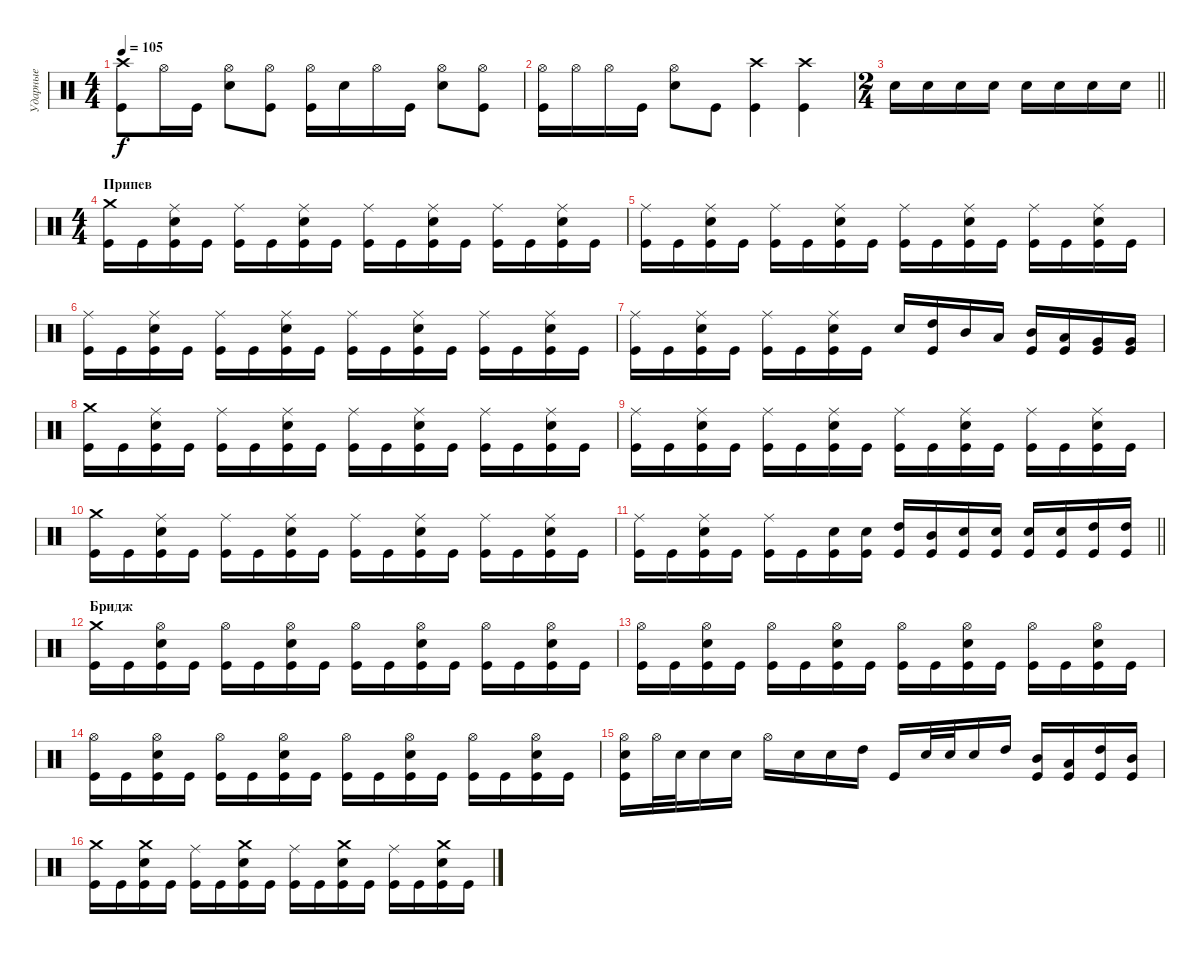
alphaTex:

\track ("Ударные" "Ударные") {instrument percussion}
\staff {score}
\articulation defaults
\ts (4 4)
\tempo 105
\clef neutral
\ks c
("Kick (hit)" "Crash high (hit)").8{dy f} "Hi-Hat (open)".16 "Kick (hit)".16 ("Snare (hit) 2" "Hi-Hat (open)").8 ("Kick (hit)" "Hi-Hat (open)").8 ("Kick (hit)" "Hi-Hat (open)").16 "Snare (hit) 2".16 "Hi-Hat (open)".16 "Kick (hit)".16 ("Snare (hit) 2" "Hi-Hat (open)").8 ("Kick (hit)" "Hi-Hat (open)").8 |
("Kick (hit)" "Hi-Hat (open)").16 "Hi-Hat (open)".16 "Hi-Hat (open)".16 "Kick (hit)".16 ("Snare (hit) 2" "Hi-Hat (open)").8 "Kick (hit)".8 ("Kick (hit)" "Crash high (hit)").4 ("Kick (hit)" "Crash high (hit)").4 |
\ts (2 4)
\barLineRight lightlight "Snare (hit) 2".16 "Snare (hit) 2".16 "Snare (hit) 2".16 "Snare (hit) 2".16 "Snare (hit) 2".16 "Snare (hit) 2".16 "Snare (hit) 2".16 "Snare (hit) 2".16
|
\ts (4 4)
\section ("" "Припев")
("Kick (hit)" "Crash medium (hit)").16 "Kick (hit)".16 ("Kick (hit)" "Snare (hit) 2" "Ride (middle)").16 "Kick (hit)".16 ("Kick (hit)" "Ride (middle)").16 "Kick (hit)".16 ("Kick (hit)" "Snare (hit) 2" "Ride (middle)").16 "Kick (hit)".16 ("Kick (hit)" "Ride (middle)").16 "Kick (hit)".16 ("Kick (hit)" "Snare (hit) 2" "Ride (middle)").16 "Kick (hit)".16 ("Kick (hit)" "Ride (middle)").16 "Kick (hit)".16 ("Kick (hit)" "Snare (hit) 2" "Ride (middle)").16 "Kick (hit)".16 |
("Kick (hit)" "Ride (middle)").16 "Kick (hit)".16 ("Kick (hit)" "Snare (hit) 2" "Ride (middle)").16 "Kick (hit)".16 ("Kick (hit)" "Ride (middle)").16 "Kick (hit)".16 ("Kick (hit)" "Snare (hit) 2" "Ride (middle)").16 "Kick (hit)".16 ("Kick (hit)" "Ride (middle)").16 "Kick (hit)".16 ("Kick (hit)" "Snare (hit) 2" "Ride (middle)").16 "Kick (hit)".16 ("Kick (hit)" "Ride (middle)").16 "Kick (hit)".16 ("Kick (hit)" "Snare (hit) 2" "Ride (middle)").16 "Kick (hit)".16 |
("Kick (hit)" "Ride (middle)").16 "Kick (hit)".16 ("Kick (hit)" "Snare (hit) 2" "Ride (middle)").16 "Kick (hit)".16 ("Kick (hit)" "Ride (middle)").16 "Kick (hit)".16 ("Kick (hit)" "Snare (hit) 2" "Ride (middle)").16 "Kick (hit)".16 ("Kick (hit)" "Ride (middle)").16 "Kick (hit)".16 ("Kick (hit)" "Snare (hit) 2" "Ride (middle)").16 "Kick (hit)".16 ("Kick (hit)" "Ride (middle)").16 "Kick (hit)".16 ("Kick (hit)" "Snare (hit) 2" "Ride (middle)").16 "Kick (hit)".16 |
("Kick (hit)" "Ride (middle)").16 "Kick (hit)".16 ("Kick (hit)" "Snare (hit) 2" "Ride (middle)").16 "Kick (hit)".16 ("Kick (hit)" "Ride (middle)").16 "Kick (hit)".16 ("Kick (hit)" "Snare (hit) 2" "Ride (middle)").16 "Kick (hit)".16 "Snare (hit) 2".16 ("Kick (hit)" "High Tom (hit)").16 "Mid Tom (hit)".16 "Low Tom (hit)".16 ("Kick (hit)" "Mid Tom (hit)").16 ("Kick (hit)" "Low Tom (hit)").16 ("Kick (hit)" "Very Low Tom (hit)").16 ("Kick (hit)" "Very Low Tom (hit)").16 |
("Kick (hit)" "Crash medium (hit)").16 "Kick (hit)".16 ("Kick (hit)" "Snare (hit) 2" "Ride (middle)").16 "Kick (hit)".16 ("Kick (hit)" "Ride (middle)").16 "Kick (hit)".16 ("Kick (hit)" "Snare (hit) 2" "Ride (middle)").16 "Kick (hit)".16 ("Kick (hit)" "Ride (middle)").16 "Kick (hit)".16 ("Kick (hit)" "Snare (hit) 2" "Ride (middle)").16 "Kick (hit)".16 ("Kick (hit)" "Ride (middle)").16 "Kick (hit)".16 ("Kick (hit)" "Snare (hit) 2" "Ride (middle)").16 "Kick (hit)".16 |
("Kick (hit)" "Ride (middle)").16 "Kick (hit)".16 ("Kick (hit)" "Snare (hit) 2" "Ride (middle)").16 "Kick (hit)".16 ("Kick (hit)" "Ride (middle)").16 "Kick (hit)".16 ("Kick (hit)" "Snare (hit) 2" "Ride (middle)").16 "Kick (hit)".16 ("Kick (hit)" "Ride (middle)").16 "Kick (hit)".16 ("Kick (hit)" "Snare (hit) 2" "Ride (middle)").16 "Kick (hit)".16 ("Kick (hit)" "Ride (middle)").16 "Kick (hit)".16 ("Kick (hit)" "Snare (hit) 2" "Ride (middle)").16 "Kick (hit)".16 |
("Kick (hit)" "Crash medium (hit)").16 "Kick (hit)".16 ("Kick (hit)" "Snare (hit) 2" "Ride (middle)").16 "Kick (hit)".16 ("Kick (hit)" "Ride (middle)").16 "Kick (hit)".16 ("Kick (hit)" "Snare (hit) 2" "Ride (middle)").16 "Kick (hit)".16 ("Kick (hit)" "Ride (middle)").16 "Kick (hit)".16 ("Kick (hit)" "Snare (hit) 2" "Ride (middle)").16 "Kick (hit)".16 ("Kick (hit)" "Ride (middle)").16 "Kick (hit)".16 ("Kick (hit)" "Snare (hit) 2" "Ride (middle)").16 "Kick (hit)".16 |
\barLineRight lightlight
("Kick (hit)" "Ride (middle)").16 "Kick (hit)".16 ("Kick (hit)" "Snare (hit) 2" "Ride (middle)").16 "Kick (hit)".16 ("Kick (hit)" "Ride (middle)").16 "Kick (hit)".16 ("Kick (hit)" "Snare (hit) 2").16 ("Kick (hit)" "Snare (hit) 2").16 ("Kick (hit)" "High Tom (hit)").16 ("Kick (hit)" "Mid Tom (hit)").16 ("Kick (hit)" "Snare (hit) 2").16 ("Kick (hit)" "Snare (hit) 2").16 ("Kick (hit)" "Snare (hit) 2").16 ("Kick (hit)" "Snare (hit) 2").16 ("Kick (hit)" "High Tom (hit)").16 ("Kick (hit)" "High Tom (hit)").16 |
\section ("" "Бридж")
("Kick (hit)" "Crash medium (hit)").16 "Kick (hit)".16 ("Kick (hit)" "Snare (hit) 2" "Hi-Hat (open)").16 "Kick (hit)".16 ("Kick (hit)" "Hi-Hat (open)").16 "Kick (hit)".16 ("Kick (hit)" "Snare (hit) 2" "Hi-Hat (open)").16 "Kick (hit)".16 ("Kick (hit)" "Hi-Hat (open)").16 "Kick (hit)".16 ("Kick (hit)" "Snare (hit) 2" "Hi-Hat (open)").16 "Kick (hit)".16 ("Kick (hit)" "Hi-Hat (open)").16 "Kick (hit)".16 ("Kick (hit)" "Snare (hit) 2" "Hi-Hat (open)").16 "Kick (hit)".16 |
("Kick (hit)" "Hi-Hat (open)").16 "Kick (hit)".16 ("Kick (hit)" "Snare (hit) 2" "Hi-Hat (open)").16 "Kick (hit)".16 ("Kick (hit)" "Hi-Hat (open)").16 "Kick (hit)".16 ("Kick (hit)" "Snare (hit) 2" "Hi-Hat (open)").16 "Kick (hit)".16 ("Kick (hit)" "Hi-Hat (open)").16 "Kick (hit)".16 ("Kick (hit)" "Snare (hit) 2" "Hi-Hat (open)").16 "Kick (hit)".16 ("Kick (hit)" "Hi-Hat (open)").16 "Kick (hit)".16 ("Kick (hit)" "Snare (hit) 2" "Hi-Hat (open)").16 "Kick (hit)".16 |
("Kick (hit)" "Hi-Hat (open)").16 "Kick (hit)".16 ("Kick (hit)" "Snare (hit) 2" "Hi-Hat (open)").16 "Kick (hit)".16 ("Kick (hit)" "Hi-Hat (open)").16 "Kick (hit)".16 ("Kick (hit)" "Snare (hit) 2" "Hi-Hat (open)").16 "Kick (hit)".16 ("Kick (hit)" "Hi-Hat (open)").16 "Kick (hit)".16 ("Kick (hit)" "Snare (hit) 2" "Hi-Hat (open)").16 "Kick (hit)".16 ("Kick (hit)" "Hi-Hat (open)").16 "Kick (hit)".16 ("Kick (hit)" "Snare (hit) 2" "Hi-Hat (open)").16 "Kick (hit)".16 |
("Kick (hit)" "Snare (hit) 2" "Hi-Hat (open)").16 "Hi-Hat (open)".32 "Snare (hit) 2".32 "Snare (hit) 2".16 "Snare (hit) 2".16 "Hi-Hat (open)".16 "Snare (hit) 2".16 "Snare (hit) 2".16 "High Tom (hit)".16 "Kick (hit)".16 "Snare (hit) 2".32 "Snare (hit) 2".32 "Snare (hit) 2".16 "High Tom (hit)".16 ("Kick (hit)" "Mid Tom (hit)").16 ("Kick (hit)" "Low Tom (hit)").16 ("Kick (hit)" "High Tom (hit)").16 ("Kick (hit)" "Mid Tom (hit)").16 |
("Kick (hit)" "Crash medium (hit)").16 "Kick (hit)".16 ("Kick (hit)" "Snare (hit) 2" "Crash medium (hit)").16 "Kick (hit)".16 ("Kick (hit)" "Ride (middle)").16 "Kick (hit)".16 ("Kick (hit)" "Snare (hit) 2" "Crash medium (hit)").16 "Kick (hit)".16 ("Kick (hit)" "Ride (middle)").16 "Kick (hit)".16 ("Kick (hit)" "Snare (hit) 2" "Crash medium (hit)").16 "Kick (hit)".16 ("Kick (hit)" "Ride (middle)").16 "Kick (hit)".16 ("Kick (hit)" "Snare (hit) 2" "Crash medium (hit)").16 "Kick (hit)".16
